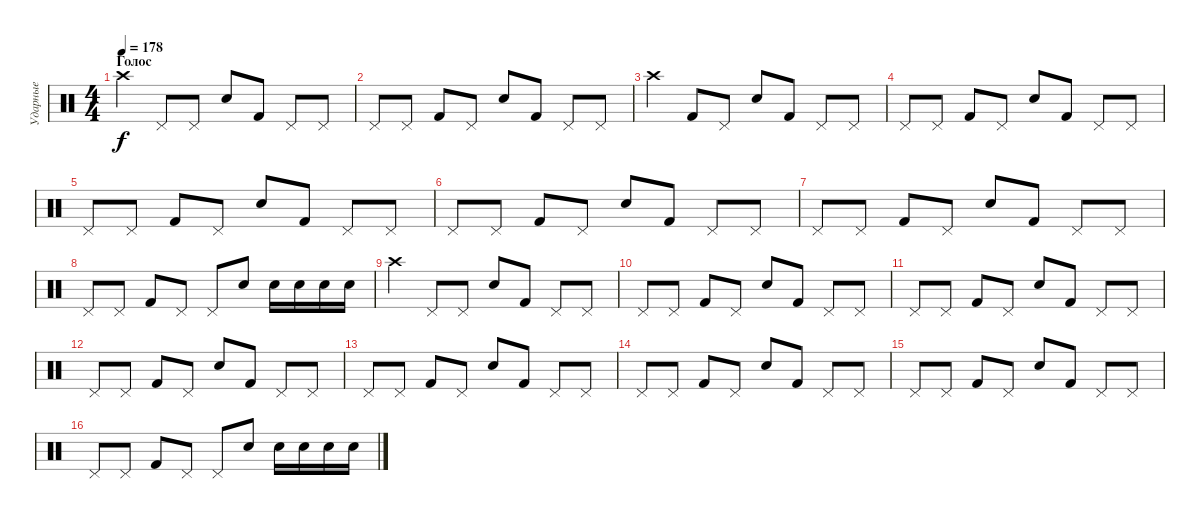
\track ("Ударные" "Ударные") {instrument percussion}
\staff {score}
\articulation defaults
\ts (4 4)
\section ("" "Голос")
\tempo 178
\clef neutral
\ks c "Crash high (hit)".4{dy f} "Pedal Hi-Hat (hit)".8 "Pedal Hi-Hat (hit)".8 "Electric Snare (hit)".8 "Kick (hit) 2".8 "Pedal Hi-Hat (hit)".8 "Pedal Hi-Hat (hit)".8
|
"Pedal Hi-Hat (hit)".8 "Pedal Hi-Hat (hit)".8 "Kick (hit) 2".8 "Pedal Hi-Hat (hit)".8 "Electric Snare (hit)".8 "Kick (hit) 2".8 "Pedal Hi-Hat (hit)".8 "Pedal Hi-Hat (hit)".8 |
"Crash high (hit)".4 "Kick (hit) 2".8 "Pedal Hi-Hat (hit)".8 "Electric Snare (hit)".8 "Kick (hit) 2".8 "Pedal Hi-Hat (hit)".8 "Pedal Hi-Hat (hit)".8 |
"Pedal Hi-Hat (hit)".8 "Pedal Hi-Hat (hit)".8 "Kick (hit) 2".8 "Pedal Hi-Hat (hit)".8 "Electric Snare (hit)".8 "Kick (hit) 2".8 "Pedal Hi-Hat (hit)".8 "Pedal Hi-Hat (hit)".8 |
"Pedal Hi-Hat (hit)".8 "Pedal Hi-Hat (hit)".8 "Kick (hit) 2".8 "Pedal Hi-Hat (hit)".8 "Electric Snare (hit)".8 "Kick (hit) 2".8 "Pedal Hi-Hat (hit)".8 "Pedal Hi-Hat (hit)".8 |
"Pedal Hi-Hat (hit)".8 "Pedal Hi-Hat (hit)".8 "Kick (hit) 2".8 "Pedal Hi-Hat (hit)".8 "Electric Snare (hit)".8 "Kick (hit) 2".8 "Pedal Hi-Hat (hit)".8 "Pedal Hi-Hat (hit)".8 |
"Pedal Hi-Hat (hit)".8 "Pedal Hi-Hat (hit)".8 "Kick (hit) 2".8 "Pedal Hi-Hat (hit)".8 "Electric Snare (hit)".8 "Kick (hit) 2".8 "Pedal Hi-Hat (hit)".8 "Pedal Hi-Hat (hit)".8 |
"Pedal Hi-Hat (hit)".8 "Pedal Hi-Hat (hit)".8 "Kick (hit) 2".8 "Pedal Hi-Hat (hit)".8 "Pedal Hi-Hat (hit)".8 "Electric Snare (hit)".8 "Electric Snare (hit)".16 "Electric Snare (hit)".16 "Electric Snare (hit)".16 "Electric Snare (hit)".16 |
"Crash high (hit)".4 "Pedal Hi-Hat (hit)".8 "Pedal Hi-Hat (hit)".8 "Electric Snare (hit)".8 "Kick (hit) 2".8 "Pedal Hi-Hat (hit)".8 "Pedal Hi-Hat (hit)".8 |
"Pedal Hi-Hat (hit)".8 "Pedal Hi-Hat (hit)".8 "Kick (hit) 2".8 "Pedal Hi-Hat (hit)".8 "Electric Snare (hit)".8 "Kick (hit) 2".8 "Pedal Hi-Hat (hit)".8 "Pedal Hi-Hat (hit)".8 |
"Pedal Hi-Hat (hit)".8 "Pedal Hi-Hat (hit)".8 "Kick (hit) 2".8 "Pedal Hi-Hat (hit)".8 "Electric Snare (hit)".8 "Kick (hit) 2".8 "Pedal Hi-Hat (hit)".8 "Pedal Hi-Hat (hit)".8 |
"Pedal Hi-Hat (hit)".8 "Pedal Hi-Hat (hit)".8 "Kick (hit) 2".8 "Pedal Hi-Hat (hit)".8 "Electric Snare (hit)".8 "Kick (hit) 2".8 "Pedal Hi-Hat (hit)".8 "Pedal Hi-Hat (hit)".8 |
"Pedal Hi-Hat (hit)".8 "Pedal Hi-Hat (hit)".8 "Kick (hit) 2".8 "Pedal Hi-Hat (hit)".8 "Electric Snare (hit)".8 "Kick (hit) 2".8 "Pedal Hi-Hat (hit)".8 "Pedal Hi-Hat (hit)".8 |
"Pedal Hi-Hat (hit)".8 "Pedal Hi-Hat (hit)".8 "Kick (hit) 2".8 "Pedal Hi-Hat (hit)".8 "Electric Snare (hit)".8 "Kick (hit) 2".8 "Pedal Hi-Hat (hit)".8 "Pedal Hi-Hat (hit)".8 |
"Pedal Hi-Hat (hit)".8 "Pedal Hi-Hat (hit)".8 "Kick (hit) 2".8 "Pedal Hi-Hat (hit)".8 "Electric Snare (hit)".8 "Kick (hit) 2".8 "Pedal Hi-Hat (hit)".8 "Pedal Hi-Hat (hit)".8 |
"Pedal Hi-Hat (hit)".8 "Pedal Hi-Hat (hit)".8 "Kick (hit) 2".8 "Pedal Hi-Hat (hit)".8 "Pedal Hi-Hat (hit)".8 "Electric Snare (hit)".8 "Electric Snare (hit)".16 "Electric Snare (hit)".16 "Electric Snare (hit)".16 "Electric Snare (hit)".16
